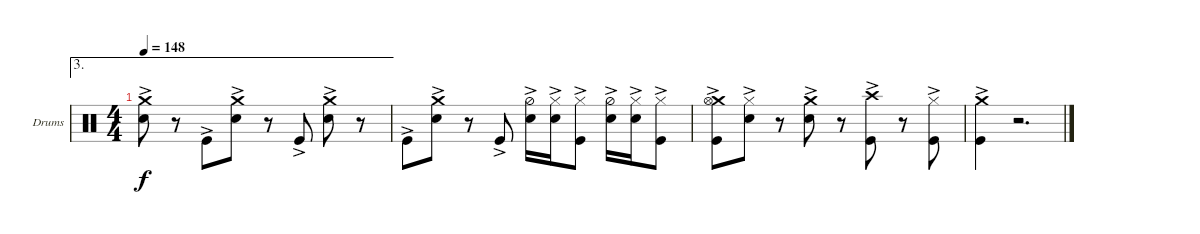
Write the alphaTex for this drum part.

\defaultSystemsLayout 4
\bracketExtendMode nobrackets
\firstSystemTrackNameOrientation horizontal
\otherSystemsTrackNameOrientation horizontal
\defaultBarNumberDisplay FirstOfSystem
\track ("Drum" "Drums") {instrument percussion}
\staff {score}
\articulation defaults
\ae 3
\ts (4 4)
\tempo 148
\clef neutral
\ks c
("Crash medium (hit)" "Snare (hit) 2"{ac}).8{dy f} r.8 "Kick (hit)"{ac}.8 ("Crash medium (hit)" "Snare (hit) 2"{ac}).8 r.8 "Kick (hit)"{ac}.8 ("Crash medium (hit)" "Snare (hit) 2"{ac}).8 r.8 |
"Kick (hit)"{ac}.8 ("Crash medium (hit)" "Snare (hit) 2"{ac}).8 r.8 "Kick (hit)"{ac}.8 ("Snare (hit) 2"{ac} "Hi-Hat (half)").16 ("Snare (hit) 2"{ac} "Hi-Hat (closed)").16 ("Hi-Hat (closed)" "Kick (hit)"{ac}).8 ("Snare (hit) 2"{ac} "Hi-Hat (half)").16 ("Snare (hit) 2"{ac} "Hi-Hat (closed)").16 ("Hi-Hat (closed)" "Kick (hit)"{ac}).8 |
("Kick (hit)"{ac} "Crash medium (hit)" "Hi-Hat (open)").8 ("Snare (hit) 2"{ac} "Hi-Hat (closed)").8 r.8 ("Snare (hit) 2"{ac} "Crash medium (hit)").8 r.8 ("Kick (hit)"{ac} "Crash high (hit)").8 r.8 ("Kick (hit)"{ac} "Hi-Hat (closed)").8 |
("Kick (hit)"{ac} "Crash medium (hit)").4 r.2{d}
